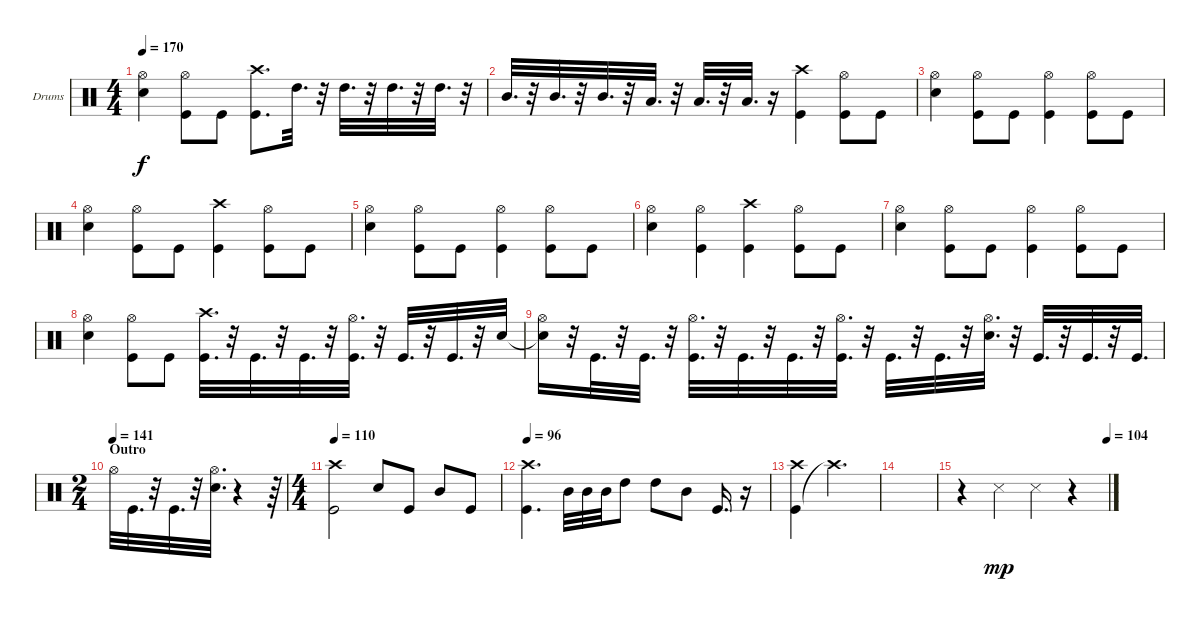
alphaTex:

\defaultSystemsLayout 4
\bracketExtendMode groupsimilarinstruments
\firstSystemTrackNameOrientation horizontal
\otherSystemsTrackNameOrientation horizontal
\track ("Jimmy \"The Hammer\" - Drums" "Drums") {instrument percussion}
\staff {score}
\articulation defaults
\ts (4 4)
\tempo 170
\clef neutral
\ks c
("Snare (hit) 2" "Hi-Hat (open)").4{dy f} ("Kick (hit)" "Hi-Hat (open)").8 "Kick (hit)".8 ("Kick (hit)" "Crash high (hit)").8{d} "High Tom (hit)".32{d} r.32 "High Tom (hit)".32{d} r.32 "High Tom (hit)".32{d} r.32 "High Tom (hit)".32{d} r.32 |
"Mid Tom (hit)".32{d} r.32 "Mid Tom (hit)".32{d} r.32 "Mid Tom (hit)".32{d} r.32 "Low Tom (hit)".32{d} r.32 "Low Tom (hit)".32{d} r.32 "Low Tom (hit)".32{d} r.16 ("Kick (hit)" "Crash high (hit)").4 ("Kick (hit)" "Hi-Hat (open)").8 "Kick (hit)".8 |
("Snare (hit) 2" "Hi-Hat (open)").4 ("Kick (hit)" "Hi-Hat (open)").8 "Kick (hit)".8 ("Kick (hit)" "Hi-Hat (open)").4 ("Kick (hit)" "Hi-Hat (open)").8 "Kick (hit)".8 |
("Snare (hit) 2" "Hi-Hat (open)").4 ("Kick (hit)" "Hi-Hat (open)").8 "Kick (hit)".8 ("Kick (hit)" "Crash high (hit)").4 ("Kick (hit)" "Hi-Hat (open)").8 "Kick (hit)".8 |
("Snare (hit) 2" "Hi-Hat (open)").4 ("Kick (hit)" "Hi-Hat (open)").8 "Kick (hit)".8 ("Kick (hit)" "Hi-Hat (open)").4 ("Kick (hit)" "Hi-Hat (open)").8 "Kick (hit)".8 |
("Snare (hit) 2" "Hi-Hat (open)").4 ("Kick (hit)" "Hi-Hat (open)").4 ("Kick (hit)" "Crash high (hit)").4 ("Kick (hit)" "Hi-Hat (open)").8 "Kick (hit)".8 |
("Snare (hit) 2" "Hi-Hat (open)").4 ("Kick (hit)" "Hi-Hat (open)").8 "Kick (hit)".8 ("Kick (hit)" "Hi-Hat (open)").4 ("Kick (hit)" "Hi-Hat (open)").8 "Kick (hit)".8 |
("Snare (hit) 2" "Hi-Hat (open)").4 ("Kick (hit)" "Hi-Hat (open)").8 "Kick (hit)".8 ("Kick (hit)" "Crash high (hit)").32{d} r.32 "Kick (hit)".32{d} r.32 "Kick (hit)".32{d} r.32 ("Kick (hit)" "Hi-Hat (open)").32{d} r.32 "Kick (hit)".32{d} r.32 "Kick (hit)".32{d} r.32 "Snare (hit) 2".32 |
("Snare (hit) 2"{t} "Hi-Hat (open)").16 r.32 "Kick (hit)".32{d} r.32 "Kick (hit)".32{d} r.32 ("Kick (hit)" "Hi-Hat (open)").32{d} r.32 "Kick (hit)".32{d} r.32 "Kick (hit)".32{d} r.32 ("Kick (hit)" "Hi-Hat (open)").32{d} r.32 "Kick (hit)".32{d} r.32 "Kick (hit)".32{d} r.32 ("Snare (hit) 2" "Hi-Hat (open)").32{d} r.32 "Kick (hit)".32{d} r.32 "Kick (hit)".32{d} r.32 "Kick (hit)".32{d} |
\ts (2 4)
\section ("" "Outro")
\tempo (141)
"Hi-Hat (open)".32 "Kick (hit)".32{d} r.32 "Kick (hit)".32{d} r.32 ("Snare (hit) 2" "Hi-Hat (open)").32{d} r.4 r.64 |
\ts (4 4)
\tempo 110
("Kick (hit)" "Crash high (hit)").2 "Snare (hit) 2".8 "Kick (hit)".8 "Mid Tom (hit)".8 "Kick (hit)".8 |
\tempo 96
("Crash high (hit)" "Kick (hit)").4{d} "Mid Tom (hit)".32 "Mid Tom (hit)".32 "Mid Tom (hit)".32 "High Tom (hit)".8 "High Tom (hit)".8 "Mid Tom (hit)".8 "Kick (hit)".16{d} r.16 |
("Kick (hit)" "Crash high (hit)").4 "Crash high (hit)"{t}.2{d} |
|
\tempo (104 0.99375)
r.4 "Snare (side stick) 3".4{dy mp} "Snare (side stick) 3".4 r.4
